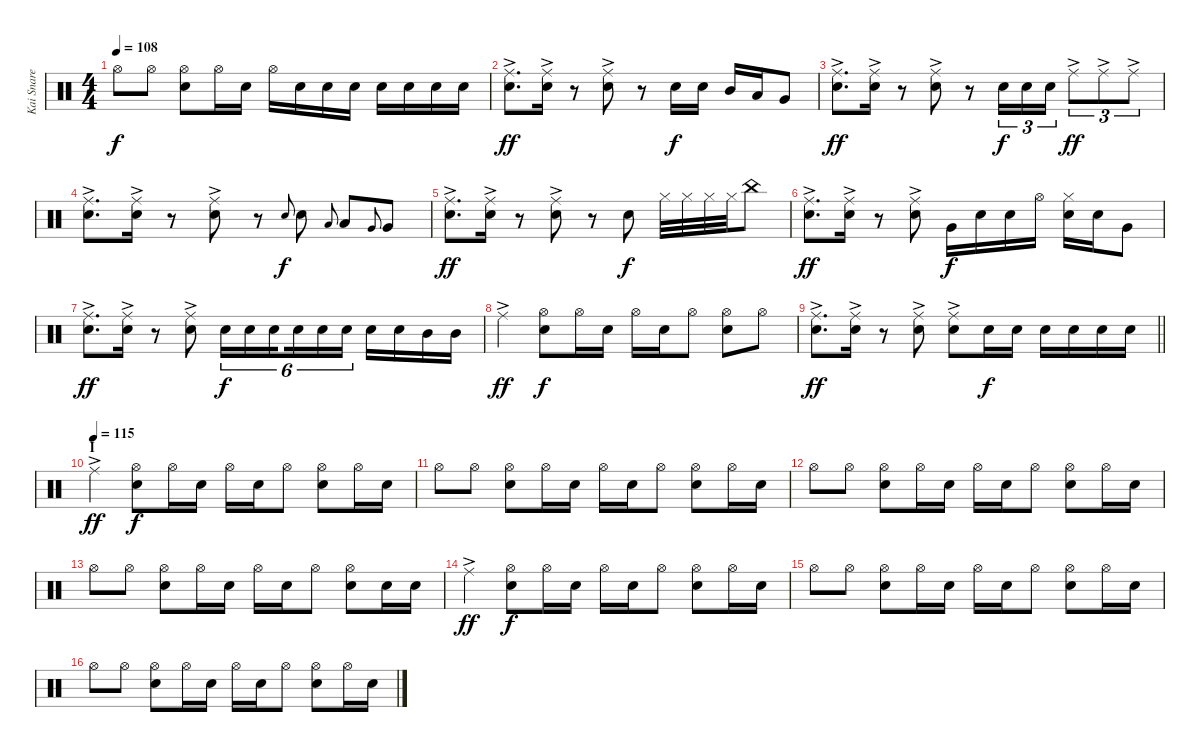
\track ("Kai Snare" "Kai Snare") {instrument percussion}
\staff {score}
\articulation defaults
\ts (4 4)
\tempo 108
\clef neutral
\ks c "Hi-Hat (open)".8{dy f} "Hi-Hat (open)".8
("Hi-Hat (open)" "Snare (hit) 2").8 "Hi-Hat (open)".16 "Snare (hit) 2".16 "Hi-Hat (open)".16 "Snare (hit) 2".16 "Snare (hit) 2".16 "Snare (hit) 2".16 "Snare (hit) 2".16 "Snare (hit) 2".16 "Snare (hit) 2".16 "Snare (hit) 2".16 |
("Ride (middle)"{ac} "Snare (hit) 2").8{d dy ff} ("Ride (middle)"{ac} "Snare (hit) 2").16 r.8 ("Ride (middle)"{ac} "Snare (hit) 2").8 r.8 "Snare (hit) 2".16{dy f} "Snare (hit) 2".16 "Mid Tom (hit)".16 "Low Tom (hit)".16 "Very Low Tom (hit)".8 |
("Ride (middle)"{ac} "Snare (hit) 2").8{d dy ff} ("Ride (middle)"{ac} "Snare (hit) 2").16 r.8 ("Ride (middle)"{ac} "Snare (hit) 2").8 r.8 "Snare (hit) 2".16{tu (3 2) dy f} "Snare (hit) 2".16{tu (3 2)} "Snare (hit) 2".16{tu (3 2)} "Ride (middle)"{ac}.8{tu (3 2) dy ff} "Ride (middle)"{ac}.8{tu (3 2)} "Ride (middle)"{ac}.8{tu (3 2)} |
("Ride (middle)"{ac} "Snare (hit) 2").8{d} ("Ride (middle)"{ac} "Snare (hit) 2").16 r.8 ("Ride (middle)"{ac} "Snare (hit) 2").8 r.8 "Snare (hit) 2".8{gr onbeat dy f} "Snare (hit) 2".8 "Low Tom (hit)".8{gr onbeat} "Low Tom (hit)".8 "Very Low Tom (hit)".8{gr onbeat} "Very Low Tom (hit)".8 |
("Ride (middle)"{ac} "Snare (hit) 2").8{d dy ff} ("Ride (middle)"{ac} "Snare (hit) 2").16 r.8 ("Ride (middle)"{ac} "Snare (hit) 2").8 r.8 "Snare (hit) 2".8{dy f} "Hi-Hat (closed)".32 "Hi-Hat (closed)".32 "Hi-Hat (closed)".32 "Hi-Hat (closed)".32 "China (hit)".8 |
("Ride (middle)"{ac} "Snare (hit) 2").8{d dy ff} ("Ride (middle)"{ac} "Snare (hit) 2").16 r.8 ("Ride (middle)"{ac} "Snare (hit) 2").8 "Very Low Tom (hit)".16{dy f} "Snare (hit) 2".16 "Snare (hit) 2".16 "Hi-Hat (open)".16 ("Hi-Hat (closed)" "Snare (hit) 2").16 "Snare (hit) 2".16 "Very Low Tom (hit)".8 |
("Ride (middle)"{ac} "Snare (hit) 2").8{d dy ff} ("Ride (middle)"{ac} "Snare (hit) 2").16 r.8 ("Ride (middle)"{ac} "Snare (hit) 2").8 "Snare (hit) 2".16{tu (6 4) dy f} "Snare (hit) 2".16{tu (6 4)} "Snare (hit) 2".16{tu (6 4) beam splitsecondary} "Snare (hit) 2".16{tu (6 4)} "Snare (hit) 2".16{tu (6 4)} "Snare (hit) 2".16{tu (6 4)} "Snare (hit) 2".16 "Snare (hit) 2".16 "Mid Tom (hit)".16 "Mid Tom (hit)".16 |
"Ride (middle)"{ac}.4{dy ff} ("Hi-Hat (open)" "Snare (hit) 2").8{dy f} "Hi-Hat (open)".16 "Snare (hit) 2".16 "Hi-Hat (open)".16 "Snare (hit) 2".16 "Hi-Hat (open)".8 ("Hi-Hat (open)" "Snare (hit) 2").8 "Hi-Hat (open)".8 |
\barLineRight lightlight
("Ride (middle)"{ac} "Snare (hit) 2").8{d dy ff} ("Ride (middle)"{ac} "Snare (hit) 2").16 r.8 ("Ride (middle)"{ac} "Snare (hit) 2").8 ("Ride (middle)"{ac} "Snare (hit) 2").8 "Snare (hit) 2".16{dy f} "Snare (hit) 2".16 "Snare (hit) 2".16 "Snare (hit) 2".16 "Snare (hit) 2".16 "Snare (hit) 2".16 |
\section ("" "I")
\tempo (115)
"Ride (middle)"{ac}.4{dy ff} ("Hi-Hat (open)" "Snare (hit) 2").8{dy f} "Hi-Hat (open)".16 "Snare (hit) 2".16 "Hi-Hat (open)".16 "Snare (hit) 2".16 "Hi-Hat (open)".8 ("Hi-Hat (open)" "Snare (hit) 2").8 "Hi-Hat (open)".16 "Snare (hit) 2".16 |
"Hi-Hat (open)".8 "Hi-Hat (open)".8 ("Hi-Hat (open)" "Snare (hit) 2").8 "Hi-Hat (open)".16 "Snare (hit) 2".16 "Hi-Hat (open)".16 "Snare (hit) 2".16 "Hi-Hat (open)".8 ("Hi-Hat (open)" "Snare (hit) 2").8 "Hi-Hat (open)".16 "Snare (hit) 2".16 |
"Hi-Hat (open)".8 "Hi-Hat (open)".8 ("Hi-Hat (open)" "Snare (hit) 2").8 "Hi-Hat (open)".16 "Snare (hit) 2".16 "Hi-Hat (open)".16 "Snare (hit) 2".16 "Hi-Hat (open)".8 ("Hi-Hat (open)" "Snare (hit) 2").8 "Hi-Hat (open)".16 "Snare (hit) 2".16 |
"Hi-Hat (open)".8 "Hi-Hat (open)".8 ("Hi-Hat (open)" "Snare (hit) 2").8 "Hi-Hat (open)".16 "Snare (hit) 2".16 "Hi-Hat (open)".16 "Snare (hit) 2".16 "Hi-Hat (open)".8 ("Hi-Hat (open)" "Snare (hit) 2").8 "Snare (hit) 2".16 "Snare (hit) 2".16 |
"Ride (middle)"{ac}.4{dy ff} ("Hi-Hat (open)" "Snare (hit) 2").8{dy f} "Hi-Hat (open)".16 "Snare (hit) 2".16 "Hi-Hat (open)".16 "Snare (hit) 2".16 "Hi-Hat (open)".8 ("Hi-Hat (open)" "Snare (hit) 2").8 "Hi-Hat (open)".16 "Snare (hit) 2".16 |
"Hi-Hat (open)".8 "Hi-Hat (open)".8 ("Hi-Hat (open)" "Snare (hit) 2").8 "Hi-Hat (open)".16 "Snare (hit) 2".16 "Hi-Hat (open)".16 "Snare (hit) 2".16 "Hi-Hat (open)".8 ("Hi-Hat (open)" "Snare (hit) 2").8 "Hi-Hat (open)".16 "Snare (hit) 2".16 |
"Hi-Hat (open)".8 "Hi-Hat (open)".8 ("Hi-Hat (open)" "Snare (hit) 2").8 "Hi-Hat (open)".16 "Snare (hit) 2".16 "Hi-Hat (open)".16 "Snare (hit) 2".16 "Hi-Hat (open)".8 ("Hi-Hat (open)" "Snare (hit) 2").8 "Hi-Hat (open)".16 "Snare (hit) 2".16
